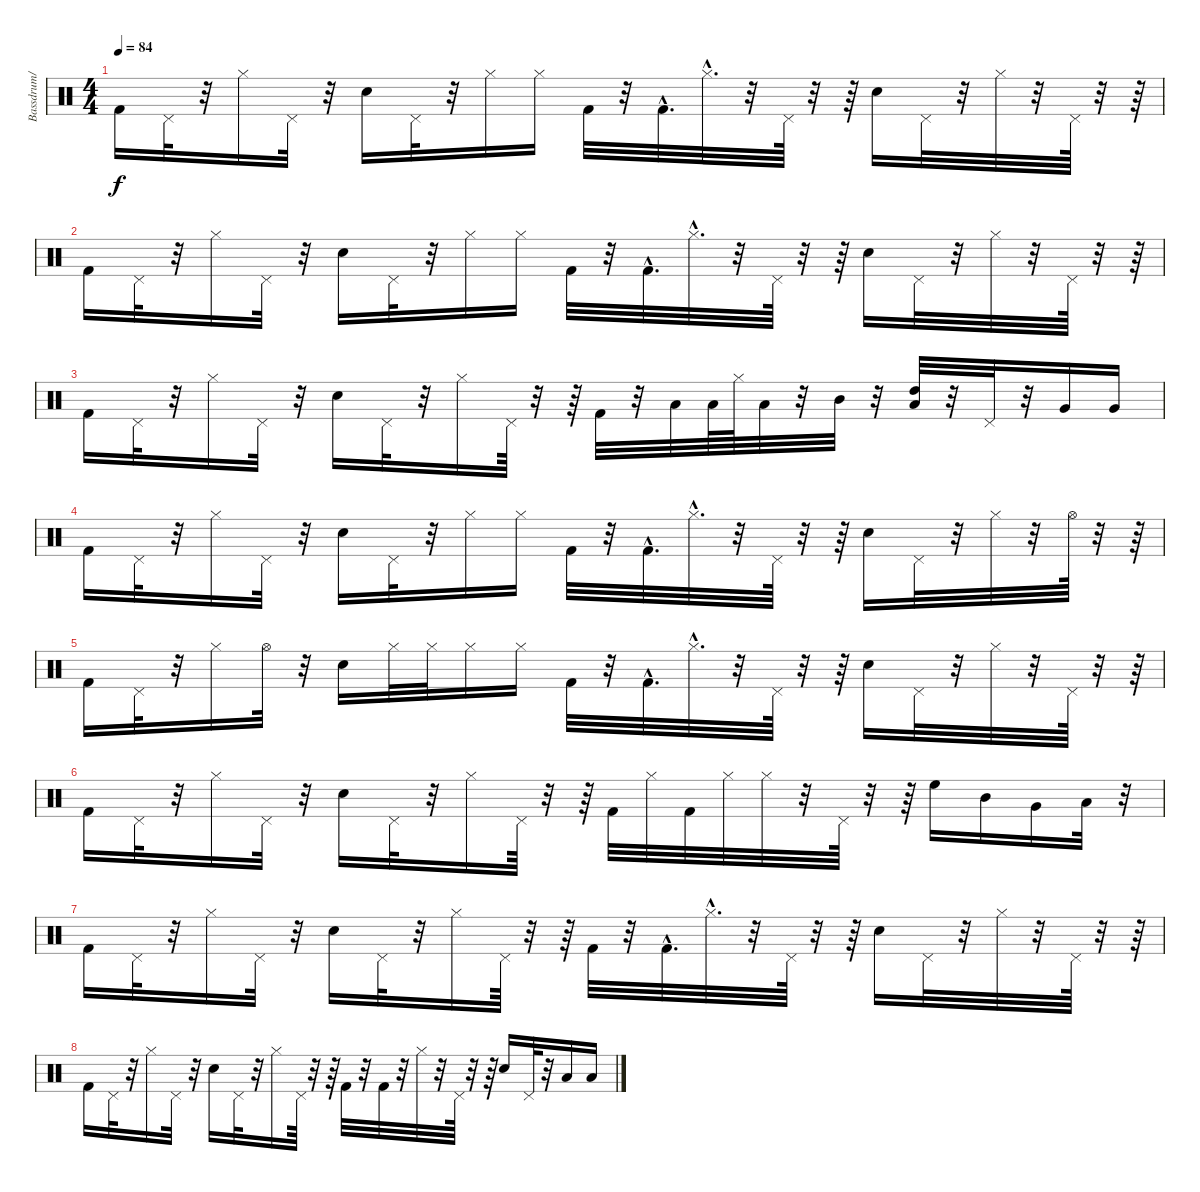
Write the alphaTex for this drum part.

\track ("Bassdrum/" "Bassdrum/") {instrument percussion}
\staff {score}
\articulation defaults
\ts (4 4)
\tempo 84
\clef neutral
\ks c "Kick (hit) 2".16{dy f} "Pedal Hi-Hat (hit)".32
r.32 "Hi-Hat (closed)".16 "Pedal Hi-Hat (hit)".32 r.32 "Snare (hit) 2".16 "Pedal Hi-Hat (hit)".32 r.32 "Hi-Hat (closed)".16 "Hi-Hat (closed)".16 "Kick (hit) 2".32 r.32 "Kick (hit) 2"{hac}.32{d} "Hi-Hat (closed)"{hac}.32{d} r.32 "Pedal Hi-Hat (hit)".64 r.32 r.64 "Snare (hit) 2".16 "Pedal Hi-Hat (hit)".32 r.32 "Hi-Hat (closed)".32 r.32 "Pedal Hi-Hat (hit)".64 r.32 r.64 |
"Kick (hit) 2".16 "Pedal Hi-Hat (hit)".32 r.32 "Hi-Hat (closed)".16 "Pedal Hi-Hat (hit)".32 r.32 "Snare (hit) 2".16 "Pedal Hi-Hat (hit)".32 r.32 "Hi-Hat (closed)".16 "Hi-Hat (closed)".16 "Kick (hit) 2".32 r.32 "Kick (hit) 2"{hac}.32{d} "Hi-Hat (closed)"{hac}.32{d} r.32 "Pedal Hi-Hat (hit)".64 r.32 r.64 "Snare (hit) 2".16 "Pedal Hi-Hat (hit)".32 r.32 "Hi-Hat (closed)".32 r.32 "Pedal Hi-Hat (hit)".64 r.32 r.64 |
"Kick (hit) 2".16 "Pedal Hi-Hat (hit)".32 r.32 "Hi-Hat (closed)".16 "Pedal Hi-Hat (hit)".32 r.32 "Snare (hit) 2".16 "Pedal Hi-Hat (hit)".32 r.32 "Hi-Hat (closed)".16 "Pedal Hi-Hat (hit)".64 r.32 r.64 "Kick (hit) 2".32 r.32 "Low Tom (hit)".32 "Low Tom (hit)".64 "Hi-Hat (closed)".64 "Low Tom (hit)".32 r.32 "Mid Tom (hit)".32 r.32 ("Low Floor Tom (hit)" "High Tom (hit)").32 r.32 "Pedal Hi-Hat (hit)".32 r.32 "Very Low Tom (hit)".16 "Very Low Tom (hit)".16 |
"Kick (hit) 2".16 "Pedal Hi-Hat (hit)".32 r.32 "Hi-Hat (closed)".16 "Pedal Hi-Hat (hit)".32 r.32 "Snare (hit) 2".16 "Pedal Hi-Hat (hit)".32 r.32 "Hi-Hat (closed)".16 "Hi-Hat (closed)".16 "Kick (hit) 2".32 r.32 "Kick (hit) 2"{hac}.32{d} "Hi-Hat (closed)"{hac}.32{d} r.32 "Pedal Hi-Hat (hit)".64 r.32 r.64 "Snare (hit) 2".16 "Pedal Hi-Hat (hit)".32 r.32 "Hi-Hat (closed)".32 r.32 "Hi-Hat (open)".64 r.32 r.64 |
"Kick (hit) 2".16 "Pedal Hi-Hat (hit)".32 r.32 "Hi-Hat (closed)".16 "Hi-Hat (open)".32 r.32 "Snare (hit) 2".16 "Hi-Hat (closed)".32 "Hi-Hat (closed)".32 "Hi-Hat (closed)".16 "Hi-Hat (closed)".16 "Kick (hit) 2".32 r.32 "Kick (hit) 2"{hac}.32{d} "Hi-Hat (closed)"{hac}.32{d} r.32 "Pedal Hi-Hat (hit)".64 r.32 r.64 "Snare (hit) 2".16 "Pedal Hi-Hat (hit)".32 r.32 "Hi-Hat (closed)".32 r.32 "Pedal Hi-Hat (hit)".64 r.32 r.64 |
"Kick (hit) 2".16 "Pedal Hi-Hat (hit)".32 r.32 "Hi-Hat (closed)".16 "Pedal Hi-Hat (hit)".32 r.32 "Snare (hit) 2".16 "Pedal Hi-Hat (hit)".32 r.32 "Hi-Hat (closed)".16 "Pedal Hi-Hat (hit)".64 r.32 r.64 "Kick (hit) 2".32 "Hi-Hat (closed)".32 "Kick (hit) 2".32 "Hi-Hat (closed)".32 "Hi-Hat (closed)".32 r.32 "Pedal Hi-Hat (hit)".64 r.32 r.64 "High Floor Tom (hit)".16 "Mid Tom (hit)".16 "Very Low Tom (hit)".16 "Low Floor Tom (hit)".32 r.32 |
"Kick (hit) 2".16 "Pedal Hi-Hat (hit)".32 r.32 "Hi-Hat (closed)".16 "Pedal Hi-Hat (hit)".32 r.32 "Snare (hit) 2".16 "Pedal Hi-Hat (hit)".32 r.32 "Hi-Hat (closed)".16 "Pedal Hi-Hat (hit)".64 r.32 r.64 "Kick (hit) 2".32 r.32 "Kick (hit) 2"{hac}.32{d} "Hi-Hat (closed)"{hac}.32{d} r.32 "Pedal Hi-Hat (hit)".64 r.32 r.64 "Snare (hit) 2".16 "Pedal Hi-Hat (hit)".32 r.32 "Hi-Hat (closed)".32 r.32 "Pedal Hi-Hat (hit)".64 r.32 r.64 |
"Kick (hit) 2".16 "Pedal Hi-Hat (hit)".32 r.32 "Hi-Hat (closed)".16 "Pedal Hi-Hat (hit)".32 r.32 "Snare (hit) 2".16 "Pedal Hi-Hat (hit)".32 r.32 "Hi-Hat (closed)".16 "Pedal Hi-Hat (hit)".64 r.32 r.64 "Kick (hit) 2".32 r.32 "Kick (hit) 2".32 r.32 "Hi-Hat (closed)".32 r.32 "Pedal Hi-Hat (hit)".64 r.32 r.64 "Snare (hit) 2".16 "Pedal Hi-Hat (hit)".32 r.32 "Low Tom (hit)".16 "Low Floor Tom (hit)".16
